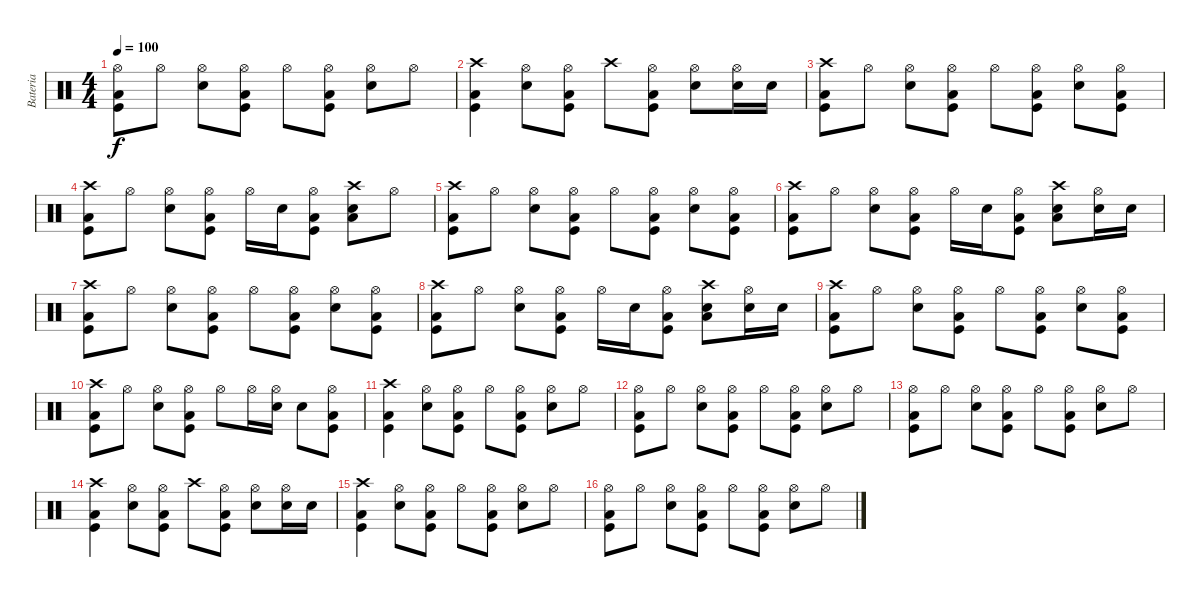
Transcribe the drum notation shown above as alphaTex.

\track ("Bateria" "Bateria") {instrument percussion}
\staff {score}
\articulation defaults
\ts (4 4)
\tempo 100
\clef neutral
\ks c
("Hi-Hat (open)" "Kick (hit)" "Low Tom (hit)").8{dy f} "Hi-Hat (open)".8 ("Hi-Hat (open)" "Snare (hit) 2").8 ("Hi-Hat (open)" "Kick (hit)" "Low Tom (hit)").8 "Hi-Hat (open)".8 ("Hi-Hat (open)" "Kick (hit)" "Low Tom (hit)").8 ("Hi-Hat (open)" "Snare (hit) 2").8 "Hi-Hat (open)".8 |
("Crash high (hit)" "Kick (hit)" "Low Tom (hit)").4 ("Hi-Hat (open)" "Snare (hit) 2").8 ("Hi-Hat (open)" "Kick (hit)" "Low Tom (hit)").8 "Crash high (hit)".8 ("Hi-Hat (open)" "Kick (hit)" "Low Tom (hit)").8 ("Hi-Hat (open)" "Snare (hit) 2").8 ("Hi-Hat (open)" "Snare (hit) 2").16 "Snare (hit) 2".16 |
("Crash high (hit)" "Kick (hit)" "Low Tom (hit)").8 "Hi-Hat (open)".8 ("Hi-Hat (open)" "Snare (hit) 2").8 ("Hi-Hat (open)" "Kick (hit)" "Low Tom (hit)").8 "Hi-Hat (open)".8 ("Hi-Hat (open)" "Kick (hit)" "Low Tom (hit)").8 ("Hi-Hat (open)" "Snare (hit) 2").8 ("Hi-Hat (open)" "Kick (hit)" "Low Tom (hit)").8 |
("Crash high (hit)" "Kick (hit)" "Low Tom (hit)").8 "Hi-Hat (open)".8 ("Hi-Hat (open)" "Snare (hit) 2").8 ("Hi-Hat (open)" "Kick (hit)" "Low Tom (hit)").8 "Hi-Hat (open)".16 "Snare (hit) 2".16 ("Hi-Hat (open)" "Kick (hit)" "Low Tom (hit)").8 ("Crash high (hit)" "Snare (hit) 2" "Low Tom (hit)").8 "Hi-Hat (open)".8 |
("Crash high (hit)" "Kick (hit)" "Low Tom (hit)").8 "Hi-Hat (open)".8 ("Hi-Hat (open)" "Snare (hit) 2").8 ("Hi-Hat (open)" "Kick (hit)" "Low Tom (hit)").8 "Hi-Hat (open)".8 ("Hi-Hat (open)" "Kick (hit)" "Low Tom (hit)").8 ("Hi-Hat (open)" "Snare (hit) 2").8 ("Hi-Hat (open)" "Kick (hit)" "Low Tom (hit)").8 |
("Crash high (hit)" "Kick (hit)" "Low Tom (hit)").8 "Hi-Hat (open)".8 ("Hi-Hat (open)" "Snare (hit) 2").8 ("Hi-Hat (open)" "Kick (hit)" "Low Tom (hit)").8 "Hi-Hat (open)".16 "Snare (hit) 2".16 ("Hi-Hat (open)" "Kick (hit)" "Low Tom (hit)").8 ("Crash high (hit)" "Snare (hit) 2" "Low Tom (hit)").8 ("Hi-Hat (open)" "Snare (hit) 2").16 "Snare (hit) 2".16 |
("Crash high (hit)" "Kick (hit)" "Low Tom (hit)").8 "Hi-Hat (open)".8 ("Hi-Hat (open)" "Snare (hit) 2").8 ("Hi-Hat (open)" "Kick (hit)" "Low Tom (hit)").8 "Hi-Hat (open)".8 ("Hi-Hat (open)" "Kick (hit)" "Low Tom (hit)").8 ("Hi-Hat (open)" "Snare (hit) 2").8 ("Hi-Hat (open)" "Kick (hit)" "Low Tom (hit)").8 |
("Crash high (hit)" "Kick (hit)" "Low Tom (hit)").8 "Hi-Hat (open)".8 ("Hi-Hat (open)" "Snare (hit) 2").8 ("Hi-Hat (open)" "Kick (hit)" "Low Tom (hit)").8 "Hi-Hat (open)".16 "Snare (hit) 2".16 ("Hi-Hat (open)" "Kick (hit)" "Low Tom (hit)").8 ("Crash high (hit)" "Snare (hit) 2" "Low Tom (hit)").8 ("Hi-Hat (open)" "Snare (hit) 2").16 "Snare (hit) 2".16 |
("Crash high (hit)" "Kick (hit)" "Low Tom (hit)").8 "Hi-Hat (open)".8 ("Hi-Hat (open)" "Snare (hit) 2").8 ("Hi-Hat (open)" "Kick (hit)" "Low Tom (hit)").8 "Hi-Hat (open)".8 ("Hi-Hat (open)" "Kick (hit)" "Low Tom (hit)").8 ("Hi-Hat (open)" "Snare (hit) 2").8 ("Hi-Hat (open)" "Kick (hit)" "Low Tom (hit)").8 |
("Crash high (hit)" "Kick (hit)" "Low Tom (hit)").8 "Hi-Hat (open)".8 ("Hi-Hat (open)" "Snare (hit) 2").8 ("Hi-Hat (open)" "Kick (hit)" "Low Tom (hit)").8 "Hi-Hat (open)".8 "Hi-Hat (open)".16 ("Hi-Hat (open)" "Snare (hit) 2").16 "Snare (hit) 2".8 ("Hi-Hat (open)" "Kick (hit)" "Low Tom (hit)").8 |
("Crash high (hit)" "Kick (hit)" "Low Tom (hit)").4 ("Hi-Hat (open)" "Snare (hit) 2").8 ("Hi-Hat (open)" "Kick (hit)" "Low Tom (hit)").8 "Hi-Hat (open)".8 ("Hi-Hat (open)" "Kick (hit)" "Low Tom (hit)").8 ("Hi-Hat (open)" "Snare (hit) 2").8 "Hi-Hat (open)".8 |
("Hi-Hat (open)" "Kick (hit)" "Low Tom (hit)").8 "Hi-Hat (open)".8 ("Hi-Hat (open)" "Snare (hit) 2").8 ("Hi-Hat (open)" "Kick (hit)" "Low Tom (hit)").8 "Hi-Hat (open)".8 ("Hi-Hat (open)" "Kick (hit)" "Low Tom (hit)").8 ("Hi-Hat (open)" "Snare (hit) 2").8 "Hi-Hat (open)".8 |
("Hi-Hat (open)" "Kick (hit)" "Low Tom (hit)").8 "Hi-Hat (open)".8 ("Hi-Hat (open)" "Snare (hit) 2").8 ("Hi-Hat (open)" "Kick (hit)" "Low Tom (hit)").8 "Hi-Hat (open)".8 ("Hi-Hat (open)" "Kick (hit)" "Low Tom (hit)").8 ("Hi-Hat (open)" "Snare (hit) 2").8 "Hi-Hat (open)".8 |
("Crash high (hit)" "Kick (hit)" "Low Tom (hit)").4 ("Hi-Hat (open)" "Snare (hit) 2").8 ("Hi-Hat (open)" "Kick (hit)" "Low Tom (hit)").8 "Crash high (hit)".8 ("Hi-Hat (open)" "Kick (hit)" "Low Tom (hit)").8 ("Hi-Hat (open)" "Snare (hit) 2").8 ("Hi-Hat (open)" "Snare (hit) 2").16 "Snare (hit) 2".16 |
("Crash high (hit)" "Kick (hit)" "Low Tom (hit)").4 ("Hi-Hat (open)" "Snare (hit) 2").8 ("Hi-Hat (open)" "Kick (hit)" "Low Tom (hit)").8 "Hi-Hat (open)".8 ("Hi-Hat (open)" "Kick (hit)" "Low Tom (hit)").8 ("Hi-Hat (open)" "Snare (hit) 2").8 "Hi-Hat (open)".8 |
("Hi-Hat (open)" "Kick (hit)" "Low Tom (hit)").8 "Hi-Hat (open)".8 ("Hi-Hat (open)" "Snare (hit) 2").8 ("Hi-Hat (open)" "Kick (hit)" "Low Tom (hit)").8 "Hi-Hat (open)".8 ("Hi-Hat (open)" "Kick (hit)" "Low Tom (hit)").8 ("Hi-Hat (open)" "Snare (hit) 2").8 "Hi-Hat (open)".8
